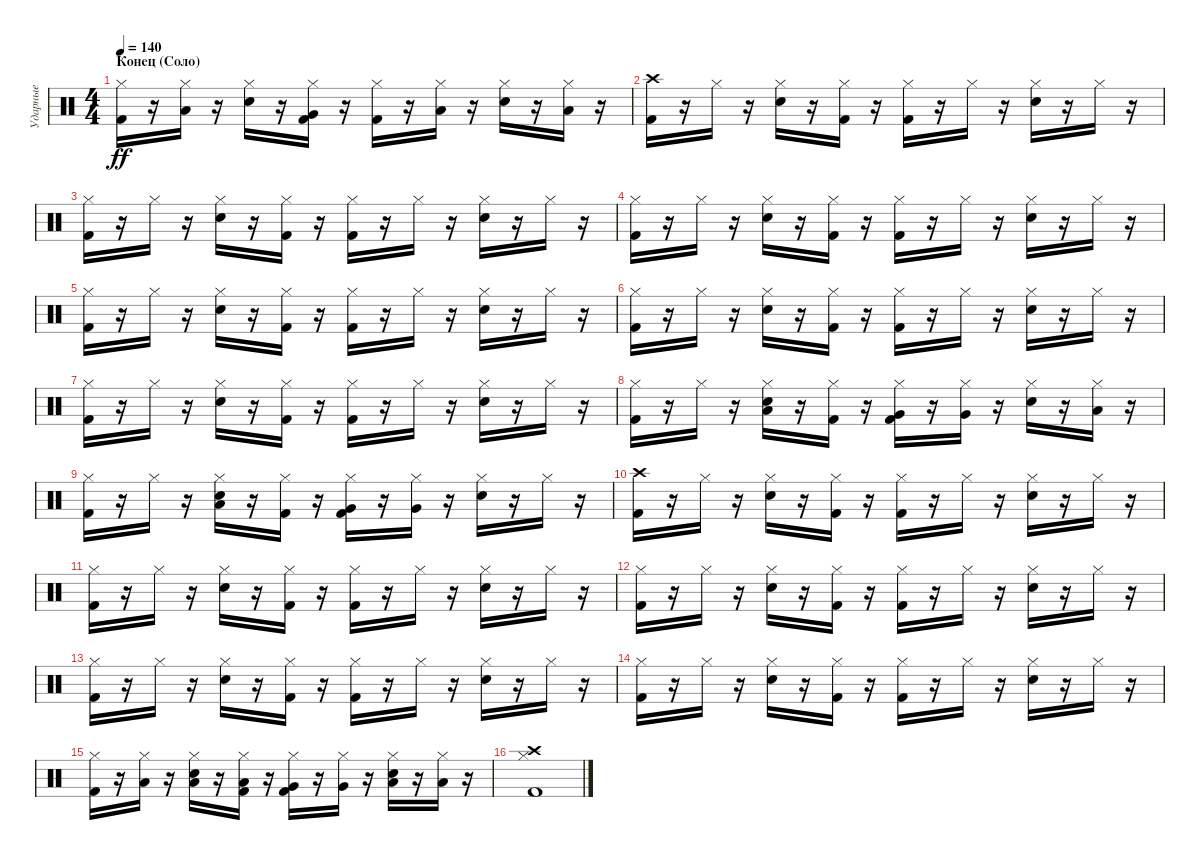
\track ("Ударные" "Ударные") {instrument percussion}
\staff {score}
\articulation defaults
\ts (4 4)
\section ("" "Конец (Соло)")
\tempo 140
\clef neutral
\ks c
("Hi-Hat (closed)" "Kick (hit) 2").16{dy ff} r.16 ("Hi-Hat (closed)" "Low Tom (hit)").16 r.16 ("Hi-Hat (closed)" "Snare (hit) 2").16 r.16 ("Hi-Hat (closed)" "Kick (hit) 2" "Very Low Tom (hit)").16 r.16 ("Hi-Hat (closed)" "Kick (hit) 2").16 r.16 ("Hi-Hat (closed)" "Low Floor Tom (hit)").16 r.16 ("Hi-Hat (closed)" "Snare (hit) 2").16 r.16 ("Hi-Hat (closed)" "Low Floor Tom (hit)").16 r.16 |
("Crash high (hit)" "Kick (hit) 2").16 r.16 "Hi-Hat (closed)".16 r.16 ("Hi-Hat (closed)" "Snare (hit) 2").16 r.16 ("Hi-Hat (closed)" "Kick (hit) 2").16 r.16 ("Hi-Hat (closed)" "Kick (hit) 2").16 r.16 "Hi-Hat (closed)".16 r.16 ("Hi-Hat (closed)" "Snare (hit) 2").16 r.16 "Hi-Hat (closed)".16 r.16 |
("Hi-Hat (closed)" "Kick (hit) 2").16 r.16 "Hi-Hat (closed)".16 r.16 ("Hi-Hat (closed)" "Snare (hit) 2").16 r.16 ("Hi-Hat (closed)" "Kick (hit) 2").16 r.16 ("Hi-Hat (closed)" "Kick (hit) 2").16 r.16 "Hi-Hat (closed)".16 r.16 ("Hi-Hat (closed)" "Snare (hit) 2").16 r.16 "Hi-Hat (closed)".16 r.16 |
("Hi-Hat (closed)" "Kick (hit) 2").16 r.16 "Hi-Hat (closed)".16 r.16 ("Hi-Hat (closed)" "Snare (hit) 2").16 r.16 ("Hi-Hat (closed)" "Kick (hit) 2").16 r.16 ("Hi-Hat (closed)" "Kick (hit) 2").16 r.16 "Hi-Hat (closed)".16 r.16 ("Hi-Hat (closed)" "Snare (hit) 2").16 r.16 "Hi-Hat (closed)".16 r.16 |
("Hi-Hat (closed)" "Kick (hit) 2").16 r.16 "Hi-Hat (closed)".16 r.16 ("Hi-Hat (closed)" "Snare (hit) 2").16 r.16 ("Hi-Hat (closed)" "Kick (hit) 2").16 r.16 ("Hi-Hat (closed)" "Kick (hit) 2").16 r.16 "Hi-Hat (closed)".16 r.16 ("Hi-Hat (closed)" "Snare (hit) 2").16 r.16 "Hi-Hat (closed)".16 r.16 |
("Hi-Hat (closed)" "Kick (hit) 2").16 r.16 "Hi-Hat (closed)".16 r.16 ("Hi-Hat (closed)" "Snare (hit) 2").16 r.16 ("Hi-Hat (closed)" "Kick (hit) 2").16 r.16 ("Hi-Hat (closed)" "Kick (hit) 2").16 r.16 "Hi-Hat (closed)".16 r.16 ("Hi-Hat (closed)" "Snare (hit) 2").16 r.16 "Hi-Hat (closed)".16 r.16 |
("Hi-Hat (closed)" "Kick (hit) 2").16 r.16 "Hi-Hat (closed)".16 r.16 ("Hi-Hat (closed)" "Snare (hit) 2").16 r.16 ("Hi-Hat (closed)" "Kick (hit) 2").16 r.16 ("Hi-Hat (closed)" "Kick (hit) 2").16 r.16 "Hi-Hat (closed)".16 r.16 ("Hi-Hat (closed)" "Snare (hit) 2").16 r.16 "Hi-Hat (closed)".16 r.16 |
("Hi-Hat (closed)" "Kick (hit) 2").16 r.16 "Hi-Hat (closed)".16 r.16 ("Hi-Hat (closed)" "Snare (hit) 2" "Low Tom (hit)").16 r.16 ("Hi-Hat (closed)" "Kick (hit) 2").16 r.16 ("Hi-Hat (closed)" "Kick (hit) 2" "Very Low Tom (hit)").16 r.16 ("Hi-Hat (closed)" "Very Low Tom (hit)").16 r.16 ("Hi-Hat (closed)" "Snare (hit) 2").16 r.16 ("Hi-Hat (closed)" "Low Tom (hit)").16 r.16 |
("Hi-Hat (closed)" "Kick (hit) 2").16 r.16 "Hi-Hat (closed)".16 r.16 ("Hi-Hat (closed)" "Snare (hit) 2" "Low Tom (hit)").16 r.16 ("Hi-Hat (closed)" "Kick (hit) 2").16 r.16 ("Hi-Hat (closed)" "Kick (hit) 2" "Very Low Tom (hit)").16 r.16 ("Hi-Hat (closed)" "Very Low Tom (hit)").16 r.16 ("Hi-Hat (closed)" "Snare (hit) 2").16 r.16 "Hi-Hat (closed)".16 r.16 |
("Crash high (hit)" "Kick (hit) 2").16 r.16 "Hi-Hat (closed)".16 r.16 ("Hi-Hat (closed)" "Snare (hit) 2").16 r.16 ("Hi-Hat (closed)" "Kick (hit) 2").16 r.16 ("Hi-Hat (closed)" "Kick (hit) 2").16 r.16 "Hi-Hat (closed)".16 r.16 ("Hi-Hat (closed)" "Snare (hit) 2").16 r.16 "Hi-Hat (closed)".16 r.16 |
("Hi-Hat (closed)" "Kick (hit) 2").16 r.16 "Hi-Hat (closed)".16 r.16 ("Hi-Hat (closed)" "Snare (hit) 2").16 r.16 ("Hi-Hat (closed)" "Kick (hit) 2").16 r.16 ("Hi-Hat (closed)" "Kick (hit) 2").16 r.16 "Hi-Hat (closed)".16 r.16 ("Hi-Hat (closed)" "Snare (hit) 2").16 r.16 "Hi-Hat (closed)".16 r.16 |
("Hi-Hat (closed)" "Kick (hit) 2").16 r.16 "Hi-Hat (closed)".16 r.16 ("Hi-Hat (closed)" "Snare (hit) 2").16 r.16 ("Hi-Hat (closed)" "Kick (hit) 2").16 r.16 ("Hi-Hat (closed)" "Kick (hit) 2").16 r.16 "Hi-Hat (closed)".16 r.16 ("Hi-Hat (closed)" "Snare (hit) 2").16 r.16 "Hi-Hat (closed)".16 r.16 |
("Hi-Hat (closed)" "Kick (hit) 2").16 r.16 "Hi-Hat (closed)".16 r.16 ("Hi-Hat (closed)" "Snare (hit) 2").16 r.16 ("Hi-Hat (closed)" "Kick (hit) 2").16 r.16 ("Hi-Hat (closed)" "Kick (hit) 2").16 r.16 "Hi-Hat (closed)".16 r.16 ("Hi-Hat (closed)" "Snare (hit) 2").16 r.16 "Hi-Hat (closed)".16 r.16 |
("Hi-Hat (closed)" "Kick (hit) 2").16 r.16 "Hi-Hat (closed)".16 r.16 ("Hi-Hat (closed)" "Snare (hit) 2").16 r.16 ("Hi-Hat (closed)" "Kick (hit) 2").16 r.16 ("Hi-Hat (closed)" "Kick (hit) 2").16 r.16 "Hi-Hat (closed)".16 r.16 ("Hi-Hat (closed)" "Snare (hit) 2").16 r.16 "Hi-Hat (closed)".16 r.16 |
("Hi-Hat (closed)" "Kick (hit) 2").16 r.16 ("Hi-Hat (closed)" "Low Tom (hit)").16 r.16 ("Hi-Hat (closed)" "Snare (hit) 2" "Low Tom (hit)").16 r.16 ("Hi-Hat (closed)" "Kick (hit) 2" "Low Tom (hit)").16 r.16 ("Hi-Hat (closed)" "Kick (hit) 2" "Very Low Tom (hit)").16 r.16 ("Hi-Hat (closed)" "Very Low Tom (hit)").16 r.16 ("Hi-Hat (closed)" "Snare (hit) 2" "Low Floor Tom (hit)").16 r.16 ("Hi-Hat (closed)" "Low Floor Tom (hit)").16 r.16 |
("Crash high (hit)" "Hi-Hat (closed)" "Kick (hit) 2").1
